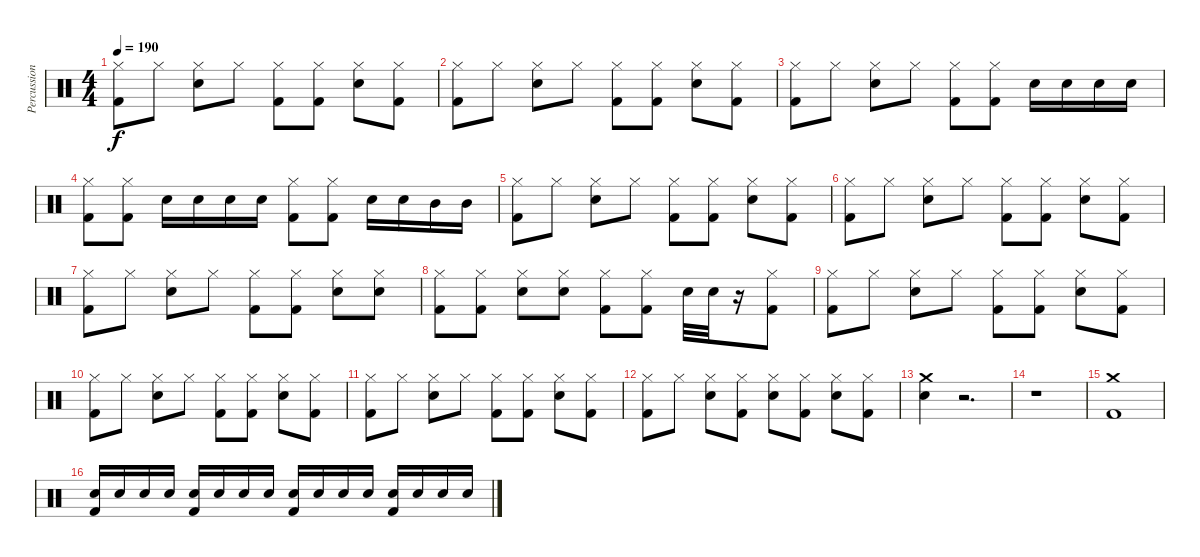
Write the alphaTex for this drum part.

\track ("Percussion" "Percussion") {instrument percussion}
\staff {score}
\articulation defaults
\ts (4 4)
\tempo 190
\clef neutral
\ks c
("Hi-Hat (closed)" "Kick (hit) 2").8{dy f} "Hi-Hat (closed)".8 ("Hi-Hat (closed)" "Electric Snare (hit)").8 "Hi-Hat (closed)".8 ("Hi-Hat (closed)" "Kick (hit) 2").8 ("Hi-Hat (closed)" "Kick (hit) 2").8 ("Hi-Hat (closed)" "Electric Snare (hit)").8 ("Hi-Hat (closed)" "Kick (hit) 2").8 |
("Hi-Hat (closed)" "Kick (hit) 2").8 "Hi-Hat (closed)".8 ("Hi-Hat (closed)" "Electric Snare (hit)").8 "Hi-Hat (closed)".8 ("Hi-Hat (closed)" "Kick (hit) 2").8 ("Hi-Hat (closed)" "Kick (hit) 2").8 ("Hi-Hat (closed)" "Electric Snare (hit)").8 ("Hi-Hat (closed)" "Kick (hit) 2").8 |
("Hi-Hat (closed)" "Kick (hit) 2").8 "Hi-Hat (closed)".8 ("Hi-Hat (closed)" "Electric Snare (hit)").8 "Hi-Hat (closed)".8 ("Hi-Hat (closed)" "Kick (hit) 2").8 ("Hi-Hat (closed)" "Kick (hit) 2").8 "Electric Snare (hit)".16 "Electric Snare (hit)".16 "Electric Snare (hit)".16 "Electric Snare (hit)".16 |
("Hi-Hat (closed)" "Kick (hit) 2").8 ("Hi-Hat (closed)" "Kick (hit) 2").8 "Electric Snare (hit)".16 "Electric Snare (hit)".16 "Electric Snare (hit)".16 "Electric Snare (hit)".16 ("Hi-Hat (closed)" "Kick (hit) 2").8 ("Hi-Hat (closed)" "Kick (hit) 2").8 "Electric Snare (hit)".16 "Electric Snare (hit)".16 "Mid Tom (hit)".16 "Mid Tom (hit)".16 |
("Hi-Hat (closed)" "Kick (hit) 2").8 "Hi-Hat (closed)".8 ("Hi-Hat (closed)" "Electric Snare (hit)").8 "Hi-Hat (closed)".8 ("Hi-Hat (closed)" "Kick (hit) 2").8 ("Hi-Hat (closed)" "Kick (hit) 2").8 ("Hi-Hat (closed)" "Electric Snare (hit)").8 ("Hi-Hat (closed)" "Kick (hit) 2").8 |
("Hi-Hat (closed)" "Kick (hit) 2").8 "Hi-Hat (closed)".8 ("Hi-Hat (closed)" "Electric Snare (hit)").8 "Hi-Hat (closed)".8 ("Hi-Hat (closed)" "Kick (hit) 2").8 ("Hi-Hat (closed)" "Kick (hit) 2").8 ("Hi-Hat (closed)" "Electric Snare (hit)").8 ("Hi-Hat (closed)" "Kick (hit) 2").8 |
("Hi-Hat (closed)" "Kick (hit) 2").8 "Hi-Hat (closed)".8 ("Hi-Hat (closed)" "Electric Snare (hit)").8 "Hi-Hat (closed)".8 ("Hi-Hat (closed)" "Kick (hit) 2").8 ("Hi-Hat (closed)" "Kick (hit) 2").8 ("Hi-Hat (closed)" "Electric Snare (hit)").8 ("Hi-Hat (closed)" "Electric Snare (hit)").8 |
("Hi-Hat (closed)" "Kick (hit) 2").8 ("Hi-Hat (closed)" "Kick (hit) 2").8 ("Hi-Hat (closed)" "Electric Snare (hit)").8 ("Hi-Hat (closed)" "Electric Snare (hit)").8 ("Hi-Hat (closed)" "Kick (hit) 2").8 ("Hi-Hat (closed)" "Kick (hit) 2").8 "Electric Snare (hit)".32 "Electric Snare (hit)".32 r.16 ("Hi-Hat (closed)" "Kick (hit) 2").8 |
("Hi-Hat (closed)" "Kick (hit) 2").8 "Hi-Hat (closed)".8 ("Hi-Hat (closed)" "Electric Snare (hit)").8 "Hi-Hat (closed)".8 ("Hi-Hat (closed)" "Kick (hit) 2").8 ("Hi-Hat (closed)" "Kick (hit) 2").8 ("Hi-Hat (closed)" "Electric Snare (hit)").8 ("Hi-Hat (closed)" "Kick (hit) 2").8 |
("Hi-Hat (closed)" "Kick (hit) 2").8 "Hi-Hat (closed)".8 ("Hi-Hat (closed)" "Electric Snare (hit)").8 "Hi-Hat (closed)".8 ("Hi-Hat (closed)" "Kick (hit) 2").8 ("Hi-Hat (closed)" "Kick (hit) 2").8 ("Hi-Hat (closed)" "Electric Snare (hit)").8 ("Hi-Hat (closed)" "Kick (hit) 2").8 |
("Hi-Hat (closed)" "Kick (hit) 2").8 "Hi-Hat (closed)".8 ("Hi-Hat (closed)" "Electric Snare (hit)").8 "Hi-Hat (closed)".8 ("Hi-Hat (closed)" "Kick (hit) 2").8 ("Hi-Hat (closed)" "Kick (hit) 2").8 ("Hi-Hat (closed)" "Electric Snare (hit)").8 ("Hi-Hat (closed)" "Kick (hit) 2").8 |
("Hi-Hat (closed)" "Kick (hit) 2").8 "Hi-Hat (closed)".8 ("Hi-Hat (closed)" "Electric Snare (hit)").8 ("Hi-Hat (closed)" "Kick (hit) 2").8 ("Hi-Hat (closed)" "Electric Snare (hit)").8 ("Hi-Hat (closed)" "Kick (hit) 2").8 ("Hi-Hat (closed)" "Electric Snare (hit)").8 ("Hi-Hat (closed)" "Kick (hit) 2").8 |
("Crash medium (hit)" "Electric Snare (hit)").4 r.2{d} |
r.1 |
("Crash medium (hit)" "Kick (hit) 2").1 |
("Electric Snare (hit)" "Kick (hit) 2").16 "Electric Snare (hit)".16 "Electric Snare (hit)".16 "Electric Snare (hit)".16 ("Electric Snare (hit)" "Kick (hit) 2").16 "Electric Snare (hit)".16 "Electric Snare (hit)".16 "Electric Snare (hit)".16 ("Electric Snare (hit)" "Kick (hit) 2").16 "Electric Snare (hit)".16 "Electric Snare (hit)".16 "Electric Snare (hit)".16 ("Electric Snare (hit)" "Kick (hit) 2").16 "Electric Snare (hit)".16 "Electric Snare (hit)".16 "Electric Snare (hit)".16
